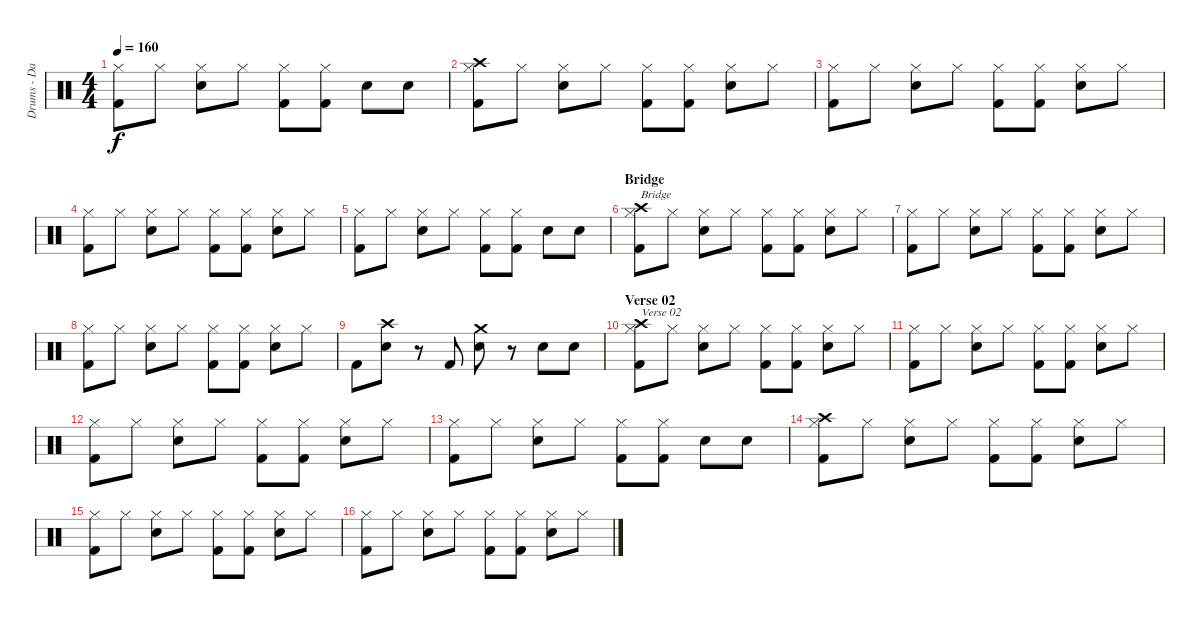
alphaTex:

\track ("Drums - Daniel Zimmermann" "Drums - Da") {instrument percussion}
\staff {score}
\articulation defaults
\ts (4 4)
\tempo 160
\clef neutral
\ks c
("Hi-Hat (closed)" "Kick (hit) 2").8{dy f} "Hi-Hat (closed)".8 ("Hi-Hat (closed)" "Snare (hit) 2").8 "Hi-Hat (closed)".8 ("Hi-Hat (closed)" "Kick (hit) 2").8 ("Hi-Hat (closed)" "Kick (hit) 2").8 "Snare (hit) 2".8 "Snare (hit) 2".8 |
("Hi-Hat (closed)" "Kick (hit) 2" "Crash high (hit)").8 "Hi-Hat (closed)".8 ("Hi-Hat (closed)" "Snare (hit) 2").8 "Hi-Hat (closed)".8 ("Hi-Hat (closed)" "Kick (hit) 2").8 ("Hi-Hat (closed)" "Kick (hit) 2").8 ("Hi-Hat (closed)" "Snare (hit) 2").8 "Hi-Hat (closed)".8 |
("Hi-Hat (closed)" "Kick (hit) 2").8 "Hi-Hat (closed)".8 ("Hi-Hat (closed)" "Snare (hit) 2").8 "Hi-Hat (closed)".8 ("Hi-Hat (closed)" "Kick (hit) 2").8 ("Hi-Hat (closed)" "Kick (hit) 2").8 ("Hi-Hat (closed)" "Snare (hit) 2").8 "Hi-Hat (closed)".8 |
("Hi-Hat (closed)" "Kick (hit) 2").8 "Hi-Hat (closed)".8 ("Hi-Hat (closed)" "Snare (hit) 2").8 "Hi-Hat (closed)".8 ("Hi-Hat (closed)" "Kick (hit) 2").8 ("Hi-Hat (closed)" "Kick (hit) 2").8 ("Hi-Hat (closed)" "Snare (hit) 2").8 "Hi-Hat (closed)".8 |
("Hi-Hat (closed)" "Kick (hit) 2").8 "Hi-Hat (closed)".8 ("Hi-Hat (closed)" "Snare (hit) 2").8 "Hi-Hat (closed)".8 ("Hi-Hat (closed)" "Kick (hit) 2").8 ("Hi-Hat (closed)" "Kick (hit) 2").8 "Snare (hit) 2".8 "Snare (hit) 2".8 |
\section ("" "Bridge")
("Hi-Hat (closed)" "Kick (hit) 2" "Crash high (hit)").8{txt "Bridge"} "Hi-Hat (closed)".8 ("Hi-Hat (closed)" "Snare (hit) 2").8 "Hi-Hat (closed)".8 ("Hi-Hat (closed)" "Kick (hit) 2").8 ("Hi-Hat (closed)" "Kick (hit) 2").8 ("Hi-Hat (closed)" "Snare (hit) 2").8 "Hi-Hat (closed)".8 |
("Hi-Hat (closed)" "Kick (hit) 2").8 "Hi-Hat (closed)".8 ("Hi-Hat (closed)" "Snare (hit) 2").8 "Hi-Hat (closed)".8 ("Hi-Hat (closed)" "Kick (hit) 2").8 ("Hi-Hat (closed)" "Kick (hit) 2").8 ("Hi-Hat (closed)" "Snare (hit) 2").8 "Hi-Hat (closed)".8 |
("Hi-Hat (closed)" "Kick (hit) 2").8 "Hi-Hat (closed)".8 ("Hi-Hat (closed)" "Snare (hit) 2").8 "Hi-Hat (closed)".8 ("Hi-Hat (closed)" "Kick (hit) 2").8 ("Hi-Hat (closed)" "Kick (hit) 2").8 ("Hi-Hat (closed)" "Snare (hit) 2").8 "Hi-Hat (closed)".8 |
"Kick (hit) 2".8 ("Snare (hit) 2" "Crash high (hit)").8 r.8 "Kick (hit) 2".8 ("Snare (hit) 2" "Crash medium (hit)").8 r.8 "Snare (hit) 2".8 "Snare (hit) 2".8 |
\section ("" "Verse 02")
("Hi-Hat (closed)" "Kick (hit) 2" "Crash high (hit)").8{txt "Verse 02"} "Hi-Hat (closed)".8 ("Hi-Hat (closed)" "Snare (hit) 2").8 "Hi-Hat (closed)".8 ("Hi-Hat (closed)" "Kick (hit) 2").8 ("Hi-Hat (closed)" "Kick (hit) 2").8 ("Hi-Hat (closed)" "Snare (hit) 2").8 "Hi-Hat (closed)".8 |
("Hi-Hat (closed)" "Kick (hit) 2").8 "Hi-Hat (closed)".8 ("Hi-Hat (closed)" "Snare (hit) 2").8 "Hi-Hat (closed)".8 ("Hi-Hat (closed)" "Kick (hit) 2").8 ("Hi-Hat (closed)" "Kick (hit) 2").8 ("Hi-Hat (closed)" "Snare (hit) 2").8 "Hi-Hat (closed)".8 |
("Hi-Hat (closed)" "Kick (hit) 2").8 "Hi-Hat (closed)".8 ("Hi-Hat (closed)" "Snare (hit) 2").8 "Hi-Hat (closed)".8 ("Hi-Hat (closed)" "Kick (hit) 2").8 ("Hi-Hat (closed)" "Kick (hit) 2").8 ("Hi-Hat (closed)" "Snare (hit) 2").8 "Hi-Hat (closed)".8 |
("Hi-Hat (closed)" "Kick (hit) 2").8 "Hi-Hat (closed)".8 ("Hi-Hat (closed)" "Snare (hit) 2").8 "Hi-Hat (closed)".8 ("Hi-Hat (closed)" "Kick (hit) 2").8 ("Hi-Hat (closed)" "Kick (hit) 2").8 "Snare (hit) 2".8 "Snare (hit) 2".8 |
("Hi-Hat (closed)" "Kick (hit) 2" "Crash high (hit)").8 "Hi-Hat (closed)".8 ("Hi-Hat (closed)" "Snare (hit) 2").8 "Hi-Hat (closed)".8 ("Hi-Hat (closed)" "Kick (hit) 2").8 ("Hi-Hat (closed)" "Kick (hit) 2").8 ("Hi-Hat (closed)" "Snare (hit) 2").8 "Hi-Hat (closed)".8 |
("Hi-Hat (closed)" "Kick (hit) 2").8 "Hi-Hat (closed)".8 ("Hi-Hat (closed)" "Snare (hit) 2").8 "Hi-Hat (closed)".8 ("Hi-Hat (closed)" "Kick (hit) 2").8 ("Hi-Hat (closed)" "Kick (hit) 2").8 ("Hi-Hat (closed)" "Snare (hit) 2").8 "Hi-Hat (closed)".8 |
("Hi-Hat (closed)" "Kick (hit) 2").8 "Hi-Hat (closed)".8 ("Hi-Hat (closed)" "Snare (hit) 2").8 "Hi-Hat (closed)".8 ("Hi-Hat (closed)" "Kick (hit) 2").8 ("Hi-Hat (closed)" "Kick (hit) 2").8 ("Hi-Hat (closed)" "Snare (hit) 2").8 "Hi-Hat (closed)".8
